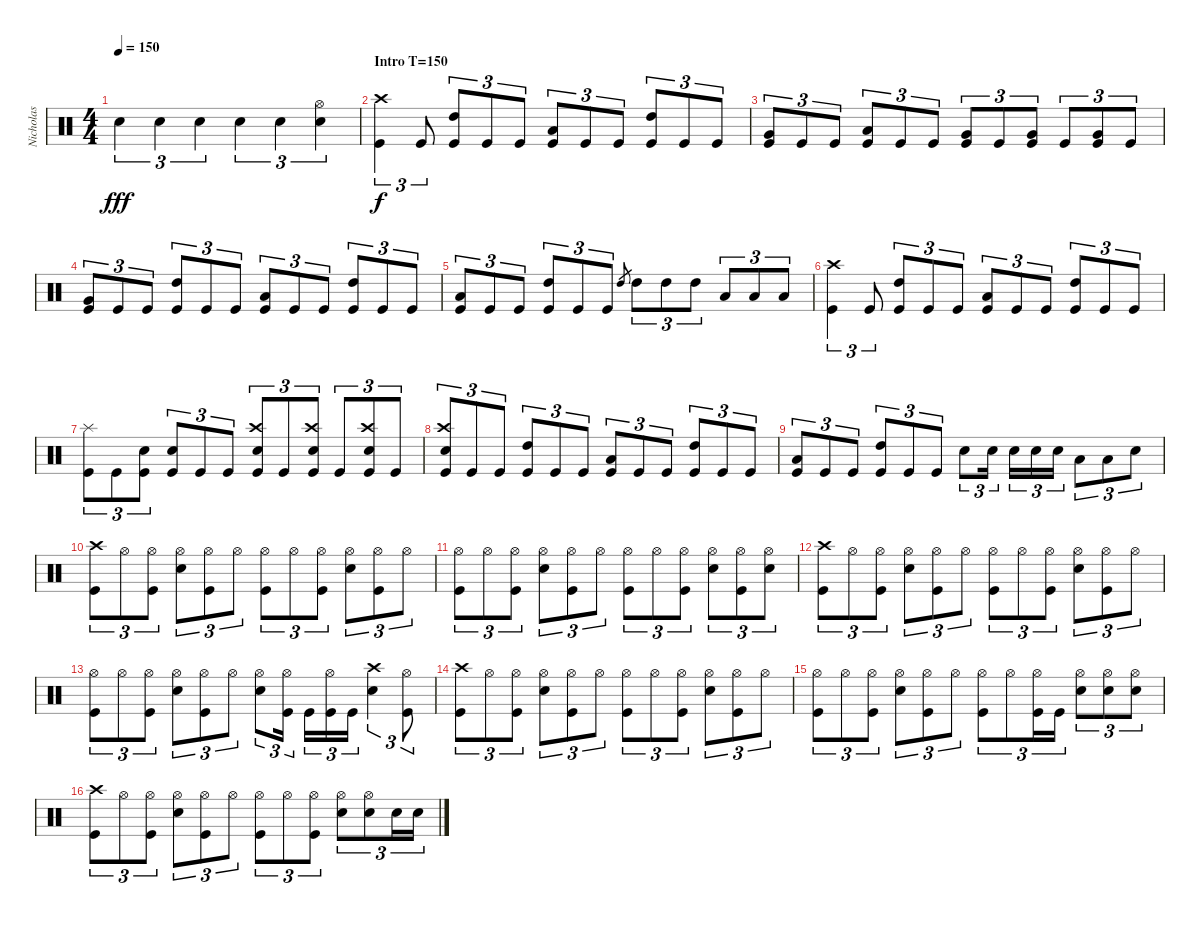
\track ("Nicholas" "Nicholas") {instrument percussion}
\staff {score}
\articulation defaults
\ts (4 4)
\tempo 150
\clef neutral
\ks c "Electric Snare (hit)".4{tu (3 2) dy fff} "Electric Snare (hit)".4{tu (3 2)} "Electric Snare (hit)".4{tu (3 2)} "Electric Snare (hit)".4{tu (3 2)} "Electric Snare (hit)".4{tu (3 2)}
("Hi-Hat (open)" "Electric Snare (hit)").4{tu (3 2)} |
\section ("" "Intro T=150")
("Crash high (hit)" "Kick (hit)").4{tu (3 2) dy f} "Kick (hit)".8{tu (3 2)} ("High Tom (hit)" "Kick (hit)").8{tu (3 2)} "Kick (hit)".8{tu (3 2)} "Kick (hit)".8{tu (3 2)} ("Low Tom (hit)" "Kick (hit)").8{tu (3 2)} "Kick (hit)".8{tu (3 2)} "Kick (hit)".8{tu (3 2)} ("High Tom (hit)" "Kick (hit)").8{tu (3 2)} "Kick (hit)".8{tu (3 2)} "Kick (hit)".8{tu (3 2)} |
("Very Low Tom (hit)" "Kick (hit)").8{tu (3 2)} "Kick (hit)".8{tu (3 2)} "Kick (hit)".8{tu (3 2)} ("Low Tom (hit)" "Kick (hit)").8{tu (3 2)} "Kick (hit)".8{tu (3 2)} "Kick (hit)".8{tu (3 2)} ("Very Low Tom (hit)" "Kick (hit)").8{tu (3 2)} "Kick (hit)".8{tu (3 2)} ("Very Low Tom (hit)" "Kick (hit)").8{tu (3 2)} "Kick (hit)".8{tu (3 2)} ("Very Low Tom (hit)" "Kick (hit)").8{tu (3 2)} "Kick (hit)".8{tu (3 2)} |
("Very Low Tom (hit)" "Kick (hit)").8{tu (3 2)} "Kick (hit)".8{tu (3 2)} "Kick (hit)".8{tu (3 2)} ("High Tom (hit)" "Kick (hit)").8{tu (3 2)} "Kick (hit)".8{tu (3 2)} "Kick (hit)".8{tu (3 2)} ("Low Tom (hit)" "Kick (hit)").8{tu (3 2)} "Kick (hit)".8{tu (3 2)} "Kick (hit)".8{tu (3 2)} ("High Tom (hit)" "Kick (hit)").8{tu (3 2)} "Kick (hit)".8{tu (3 2)} "Kick (hit)".8{tu (3 2)} |
("Low Tom (hit)" "Kick (hit)").8{tu (3 2)} "Kick (hit)".8{tu (3 2)} "Kick (hit)".8{tu (3 2)} ("High Tom (hit)" "Kick (hit)").8{tu (3 2)} "Kick (hit)".8{tu (3 2)} "Kick (hit)".8{tu (3 2)} "High Tom (hit)".8{gr} "High Tom (hit)".8{tu (3 2) balance 12} "High Tom (hit)".8{tu (3 2)} "High Tom (hit)".8{tu (3 2)} "Low Tom (hit)".8{tu (3 2) balance 4} "Low Tom (hit)".8{tu (3 2)} "Low Tom (hit)".8{tu (3 2)} |
("Crash high (hit)" "Kick (hit)").4{tu (3 2)} "Kick (hit)".8{tu (3 2)} ("High Tom (hit)" "Kick (hit)").8{tu (3 2)} "Kick (hit)".8{tu (3 2)} "Kick (hit)".8{tu (3 2)} ("Low Tom (hit)" "Kick (hit)").8{tu (3 2)} "Kick (hit)".8{tu (3 2)} "Kick (hit)".8{tu (3 2)} ("High Tom (hit)" "Kick (hit)").8{tu (3 2)} "Kick (hit)".8{tu (3 2)} "Kick (hit)".8{tu (3 2)} |
("Splash (hit)" "Kick (hit)").8{tu (3 2)} "Kick (hit)".8{tu (3 2)} ("Electric Snare (hit)" "Kick (hit)").8{tu (3 2)} ("Electric Snare (hit)" "Kick (hit)").8{tu (3 2)} "Kick (hit)".8{tu (3 2)} "Kick (hit)".8{tu (3 2)} ("Crash high (hit)" "Electric Snare (hit)" "Kick (hit)").8{tu (3 2)} "Kick (hit)".8{tu (3 2)} ("Crash high (hit)" "Electric Snare (hit)" "Kick (hit)").8{tu (3 2)} "Kick (hit)".8{tu (3 2)} ("Crash high (hit)" "Electric Snare (hit)" "Kick (hit)").8{tu (3 2)} "Kick (hit)".8{tu (3 2)} |
("Crash high (hit)" "Electric Snare (hit)" "Kick (hit)").8{tu (3 2)} "Kick (hit)".8{tu (3 2)} "Kick (hit)".8{tu (3 2)} ("High Tom (hit)" "Kick (hit)").8{tu (3 2)} "Kick (hit)".8{tu (3 2)} "Kick (hit)".8{tu (3 2)} ("Low Tom (hit)" "Kick (hit)").8{tu (3 2)} "Kick (hit)".8{tu (3 2)} "Kick (hit)".8{tu (3 2)} ("High Tom (hit)" "Kick (hit)").8{tu (3 2)} "Kick (hit)".8{tu (3 2)} "Kick (hit)".8{tu (3 2)} |
("Low Tom (hit)" "Kick (hit)").8{tu (3 2)} "Kick (hit)".8{tu (3 2)} "Kick (hit)".8{tu (3 2)} ("High Tom (hit)" "Kick (hit)").8{tu (3 2)} "Kick (hit)".8{tu (3 2)} "Kick (hit)".8{tu (3 2)} "Electric Snare (hit)".8{tu (3 2)} "Electric Snare (hit)".16{tu (3 2)} "Electric Snare (hit)".16{tu (3 2)} "Electric Snare (hit)".16{tu (3 2)} "Electric Snare (hit)".16{tu (3 2)} "Low Tom (hit)".8{tu (3 2)} "Low Tom (hit)".8{tu (3 2)} "Electric Snare (hit)".8{tu (3 2)} |
("Crash high (hit)" "Kick (hit)").8{tu (3 2)} "Hi-Hat (open)".8{tu (3 2)} ("Hi-Hat (open)" "Kick (hit)").8{tu (3 2)} ("Hi-Hat (open)" "Electric Snare (hit)").8{tu (3 2)} ("Hi-Hat (open)" "Kick (hit)").8{tu (3 2)} "Hi-Hat (open)".8{tu (3 2)} ("Hi-Hat (open)" "Kick (hit)").8{tu (3 2)} "Hi-Hat (open)".8{tu (3 2)} ("Hi-Hat (open)" "Kick (hit)").8{tu (3 2)} ("Hi-Hat (open)" "Electric Snare (hit)").8{tu (3 2)} ("Hi-Hat (open)" "Kick (hit)").8{tu (3 2)} "Hi-Hat (open)".8{tu (3 2)} |
("Hi-Hat (open)" "Kick (hit)").8{tu (3 2)} "Hi-Hat (open)".8{tu (3 2)} ("Hi-Hat (open)" "Kick (hit)").8{tu (3 2)} ("Hi-Hat (open)" "Electric Snare (hit)").8{tu (3 2)} ("Hi-Hat (open)" "Kick (hit)").8{tu (3 2)} "Hi-Hat (open)".8{tu (3 2)} ("Hi-Hat (open)" "Kick (hit)").8{tu (3 2)} "Hi-Hat (open)".8{tu (3 2)} ("Hi-Hat (open)" "Kick (hit)").8{tu (3 2)} ("Hi-Hat (open)" "Electric Snare (hit)").8{tu (3 2)} ("Hi-Hat (open)" "Kick (hit)").8{tu (3 2)} ("Hi-Hat (open)" "Electric Snare (hit)").8{tu (3 2)} |
("Crash high (hit)" "Kick (hit)").8{tu (3 2)} "Hi-Hat (open)".8{tu (3 2)} ("Hi-Hat (open)" "Kick (hit)").8{tu (3 2)} ("Hi-Hat (open)" "Electric Snare (hit)").8{tu (3 2)} ("Hi-Hat (open)" "Kick (hit)").8{tu (3 2)} "Hi-Hat (open)".8{tu (3 2)} ("Hi-Hat (open)" "Kick (hit)").8{tu (3 2)} "Hi-Hat (open)".8{tu (3 2)} ("Hi-Hat (open)" "Kick (hit)").8{tu (3 2)} ("Hi-Hat (open)" "Electric Snare (hit)").8{tu (3 2)} ("Hi-Hat (open)" "Kick (hit)").8{tu (3 2)} "Hi-Hat (open)".8{tu (3 2)} |
("Hi-Hat (open)" "Kick (hit)").8{tu (3 2)} "Hi-Hat (open)".8{tu (3 2)} ("Hi-Hat (open)" "Kick (hit)").8{tu (3 2)} ("Hi-Hat (open)" "Electric Snare (hit)").8{tu (3 2)} ("Hi-Hat (open)" "Kick (hit)").8{tu (3 2)} "Hi-Hat (open)".8{tu (3 2)} ("Hi-Hat (open)" "Electric Snare (hit)").8{tu (3 2)} ("Hi-Hat (open)" "Kick (hit)").16{tu (3 2)} "Kick (hit)".16{tu (3 2)} ("Hi-Hat (open)" "Kick (hit)").16{tu (3 2)} "Kick (hit)".16{tu (3 2)} ("Crash high (hit)" "Electric Snare (hit)").4{tu (3 2)} ("Hi-Hat (open)" "Kick (hit)").8{tu (3 2)} |
("Crash high (hit)" "Kick (hit)").8{tu (3 2)} "Hi-Hat (open)".8{tu (3 2)} ("Hi-Hat (open)" "Kick (hit)").8{tu (3 2)} ("Hi-Hat (open)" "Electric Snare (hit)").8{tu (3 2)} ("Hi-Hat (open)" "Kick (hit)").8{tu (3 2)} "Hi-Hat (open)".8{tu (3 2)} ("Hi-Hat (open)" "Kick (hit)").8{tu (3 2)} "Hi-Hat (open)".8{tu (3 2)} ("Hi-Hat (open)" "Kick (hit)").8{tu (3 2)} ("Hi-Hat (open)" "Electric Snare (hit)").8{tu (3 2)} ("Hi-Hat (open)" "Kick (hit)").8{tu (3 2)} "Hi-Hat (open)".8{tu (3 2)} |
("Hi-Hat (open)" "Kick (hit)").8{tu (3 2)} "Hi-Hat (open)".8{tu (3 2)} ("Hi-Hat (open)" "Kick (hit)").8{tu (3 2)} ("Hi-Hat (open)" "Electric Snare (hit)").8{tu (3 2)} ("Hi-Hat (open)" "Kick (hit)").8{tu (3 2)} "Hi-Hat (open)".8{tu (3 2)} ("Hi-Hat (open)" "Kick (hit)").8{tu (3 2)} "Hi-Hat (open)".8{tu (3 2)} ("Hi-Hat (open)" "Kick (hit)").16{tu (3 2)} "Kick (hit)".16{tu (3 2)} ("Hi-Hat (open)" "Electric Snare (hit)").8{tu (3 2)} ("Hi-Hat (open)" "Electric Snare (hit)").8{tu (3 2)} ("Hi-Hat (open)" "Electric Snare (hit)").8{tu (3 2)} |
("Crash high (hit)" "Kick (hit)").8{tu (3 2)} "Hi-Hat (open)".8{tu (3 2)} ("Hi-Hat (open)" "Kick (hit)").8{tu (3 2)} ("Hi-Hat (open)" "Electric Snare (hit)").8{tu (3 2)} ("Hi-Hat (open)" "Kick (hit)").8{tu (3 2)} "Hi-Hat (open)".8{tu (3 2)} ("Hi-Hat (open)" "Kick (hit)").8{tu (3 2)} "Hi-Hat (open)".8{tu (3 2)} ("Hi-Hat (open)" "Kick (hit)").8{tu (3 2)} ("Hi-Hat (open)" "Electric Snare (hit)").8{tu (3 2)} ("Hi-Hat (open)" "Electric Snare (hit)").8{tu (3 2)} "Electric Snare (hit)".16{tu (3 2)} "Electric Snare (hit)".16{tu (3 2)}
